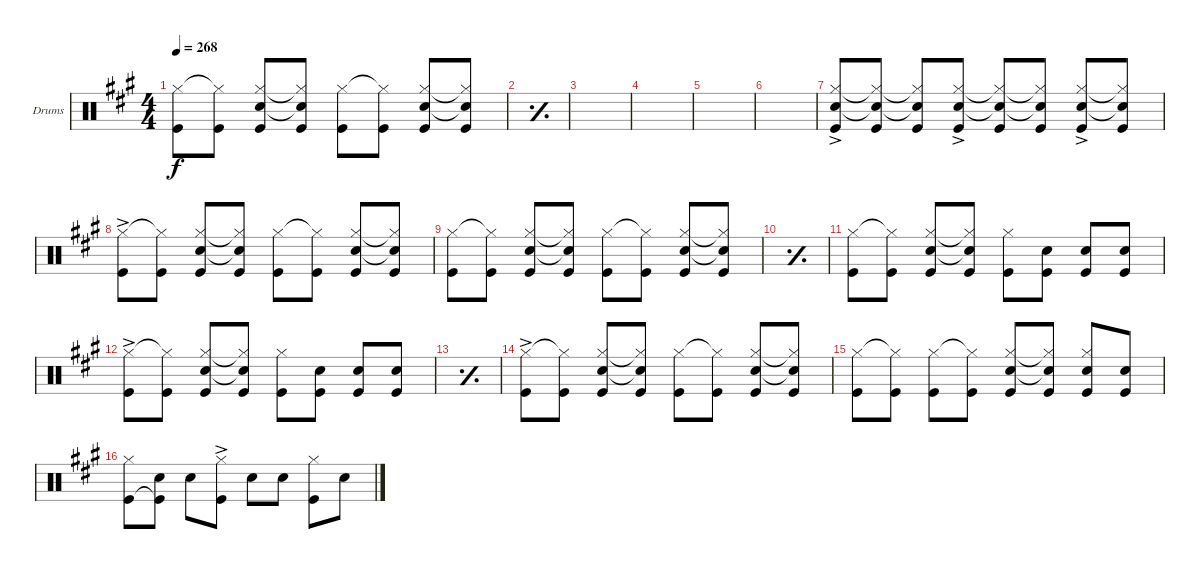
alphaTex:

\defaultSystemsLayout 4
\bracketExtendMode groupsimilarinstruments
\firstSystemTrackNameOrientation horizontal
\otherSystemsTrackNameOrientation horizontal
\track ("Stefan Kaufmann" "Drums") {instrument percussion}
\staff {score}
\articulation defaults
\ts (4 4)
\tempo 268
\clef neutral
\ks a
("Kick (hit)" "Hi-Hat (closed)").8{dy f} ("Kick (hit)" "Hi-Hat (closed)"{t}).8 ("Kick (hit)" "Snare (hit) 2" "Hi-Hat (closed)").8 ("Kick (hit)" "Snare (hit) 2"{t} "Hi-Hat (closed)"{t}).8 ("Kick (hit)" "Hi-Hat (closed)").8 ("Kick (hit)" "Hi-Hat (closed)"{t}).8 ("Kick (hit)" "Snare (hit) 2" "Hi-Hat (closed)").8 ("Kick (hit)" "Snare (hit) 2"{t} "Hi-Hat (closed)"{t}).8 |
\simile simple
|
|
|
|
|
\simile none
("Kick (hit)"{ac} "Snare (hit) 2"{ac} "Hi-Hat (closed)"{ac}).8 ("Kick (hit)" "Snare (hit) 2"{t} "Hi-Hat (closed)"{t}).8 ("Kick (hit)" "Snare (hit) 2"{t} "Hi-Hat (closed)"{t}).8 ("Kick (hit)"{ac} "Snare (hit) 2"{ac} "Hi-Hat (closed)"{ac}).8 ("Kick (hit)" "Snare (hit) 2"{t} "Hi-Hat (closed)"{t}).8 ("Kick (hit)" "Snare (hit) 2"{t} "Hi-Hat (closed)"{t}).8 ("Kick (hit)"{ac} "Snare (hit) 2"{ac} "Hi-Hat (closed)"{ac}).8 ("Kick (hit)" "Snare (hit) 2"{t} "Hi-Hat (closed)"{t}).8 |
("Kick (hit)"{ac} "Hi-Hat (closed)"{ac}).8 ("Kick (hit)" "Hi-Hat (closed)"{t}).8 ("Kick (hit)" "Hi-Hat (closed)" "Snare (hit) 2").8 ("Kick (hit)" "Hi-Hat (closed)"{t} "Snare (hit) 2"{t}).8 ("Kick (hit)" "Hi-Hat (closed)").8 ("Kick (hit)" "Hi-Hat (closed)"{t}).8 ("Kick (hit)" "Snare (hit) 2" "Hi-Hat (closed)").8 ("Kick (hit)" "Snare (hit) 2"{t} "Hi-Hat (closed)"{t}).8 |
("Kick (hit)" "Hi-Hat (closed)").8 ("Kick (hit)" "Hi-Hat (closed)"{t}).8 ("Kick (hit)" "Hi-Hat (closed)" "Snare (hit) 2").8 ("Kick (hit)" "Hi-Hat (closed)"{t} "Snare (hit) 2"{t}).8 ("Kick (hit)" "Hi-Hat (closed)").8 ("Kick (hit)" "Hi-Hat (closed)"{t}).8 ("Kick (hit)" "Snare (hit) 2" "Hi-Hat (closed)").8 ("Kick (hit)" "Snare (hit) 2"{t} "Hi-Hat (closed)"{t}).8 |
\simile simple
|
\simile none
("Kick (hit)" "Hi-Hat (closed)").8 ("Kick (hit)" "Hi-Hat (closed)"{t}).8 ("Kick (hit)" "Hi-Hat (closed)" "Snare (hit) 2").8 ("Kick (hit)" "Hi-Hat (closed)"{t} "Snare (hit) 2"{t}).8 ("Kick (hit)" "Hi-Hat (closed)").8 ("Kick (hit)" "Snare (hit) 2").8 ("Kick (hit)" "Snare (hit) 2").8 ("Kick (hit)" "Snare (hit) 2").8 |
("Kick (hit)"{ac} "Hi-Hat (closed)"{ac}).8 ("Kick (hit)" "Hi-Hat (closed)"{t}).8 ("Kick (hit)" "Hi-Hat (closed)" "Snare (hit) 2").8 ("Kick (hit)" "Hi-Hat (closed)"{t} "Snare (hit) 2"{t}).8 ("Kick (hit)" "Hi-Hat (closed)").8 ("Kick (hit)" "Snare (hit) 2").8 ("Kick (hit)" "Snare (hit) 2").8 ("Kick (hit)" "Snare (hit) 2").8 |
\simile simple
|
\simile none
("Kick (hit)"{ac} "Hi-Hat (closed)"{ac}).8 ("Kick (hit)" "Hi-Hat (closed)"{t}).8 ("Kick (hit)" "Hi-Hat (closed)" "Snare (hit) 2").8 ("Kick (hit)" "Hi-Hat (closed)"{t} "Snare (hit) 2"{t}).8 ("Kick (hit)" "Hi-Hat (closed)").8 ("Kick (hit)" "Hi-Hat (closed)"{t}).8 ("Kick (hit)" "Snare (hit) 2" "Hi-Hat (closed)").8 ("Kick (hit)" "Snare (hit) 2"{t} "Hi-Hat (closed)"{t}).8 |
("Kick (hit)" "Hi-Hat (closed)").8 ("Kick (hit)" "Hi-Hat (closed)"{t}).8 ("Kick (hit)" "Hi-Hat (closed)").8 ("Kick (hit)" "Hi-Hat (closed)"{t}).8 ("Kick (hit)" "Hi-Hat (closed)" "Snare (hit) 2").8 ("Kick (hit)" "Hi-Hat (closed)"{t} "Snare (hit) 2"{t}).8 ("Kick (hit)" "Snare (hit) 2" "Hi-Hat (closed)").8 ("Kick (hit)" "Snare (hit) 2").8 |
("Kick (hit)" "Hi-Hat (closed)").8 ("Kick (hit)"{t} "Snare (hit) 2").8 "Snare (hit) 2".8 ("Kick (hit)" "Hi-Hat (closed)"{ac}).8 "Snare (hit) 2".8 "Snare (hit) 2".8 ("Kick (hit)" "Hi-Hat (closed)").8 "Snare (hit) 2".8
